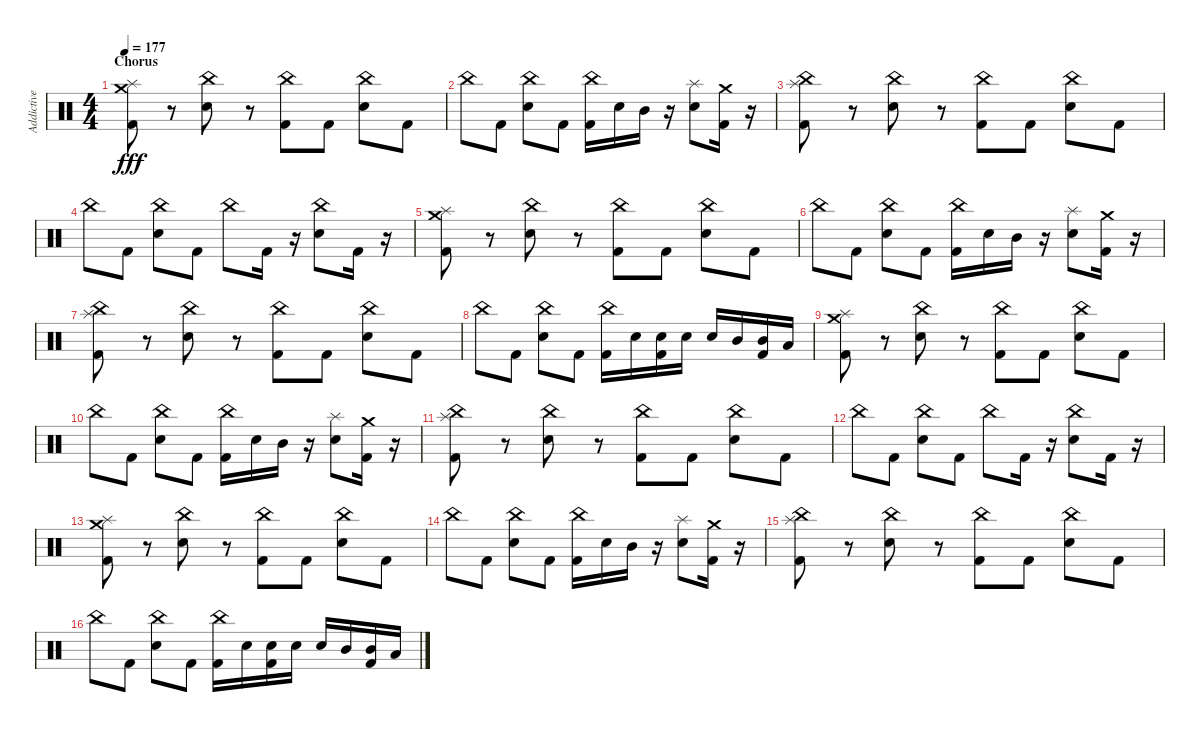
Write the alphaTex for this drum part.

\track ("Addictive" "Addictive") {instrument percussion}
\staff {score}
\articulation defaults
\ts (4 4)
\section ("" "Chorus")
\tempo 177
\clef neutral
\ks c
("Kick (hit) 2" "Splash (hit)" "Crash medium (hit)").8{dy fff} r.8 ("Snare (hit) 2" "China (hit)").8 r.8 ("Kick (hit) 2" "China (hit)").8 "Kick (hit) 2".8 ("Snare (hit) 2" "China (hit)").8 "Kick (hit) 2".8 |
"China (hit)".8 "Kick (hit) 2".8 ("Snare (hit) 2" "China (hit)").8 "Kick (hit) 2".8 ("Kick (hit) 2" "China (hit)").16 "Snare (hit) 2".16 "Mid Tom (hit)".16 r.16 ("Snare (hit) 2" "Splash (hit)").8 ("Kick (hit) 2" "Crash medium (hit)").16 r.16 |
("Kick (hit) 2" "Splash (hit)" "China (hit)").8 r.8 ("Snare (hit) 2" "China (hit)").8 r.8 ("Kick (hit) 2" "China (hit)").8 "Kick (hit) 2".8 ("Snare (hit) 2" "China (hit)").8 "Kick (hit) 2".8 |
"China (hit)".8 "Kick (hit) 2".8 ("Snare (hit) 2" "China (hit)").8 "Kick (hit) 2".8 "China (hit)".8 "Kick (hit) 2".16 r.16 ("Snare (hit) 2" "China (hit)").8 "Kick (hit) 2".16 r.16 |
("Kick (hit) 2" "Splash (hit)" "Crash medium (hit)").8 r.8 ("Snare (hit) 2" "China (hit)").8 r.8 ("Kick (hit) 2" "China (hit)").8 "Kick (hit) 2".8 ("Snare (hit) 2" "China (hit)").8 "Kick (hit) 2".8 |
"China (hit)".8 "Kick (hit) 2".8 ("Snare (hit) 2" "China (hit)").8 "Kick (hit) 2".8 ("Kick (hit) 2" "China (hit)").16 "Snare (hit) 2".16 "Mid Tom (hit)".16 r.16 ("Snare (hit) 2" "Splash (hit)").8 ("Kick (hit) 2" "Crash medium (hit)").16 r.16 |
("Kick (hit) 2" "Splash (hit)" "China (hit)").8 r.8 ("Snare (hit) 2" "China (hit)").8 r.8 ("Kick (hit) 2" "China (hit)").8 "Kick (hit) 2".8 ("Snare (hit) 2" "China (hit)").8 "Kick (hit) 2".8 |
"China (hit)".8 "Kick (hit) 2".8 ("Snare (hit) 2" "China (hit)").8 "Kick (hit) 2".8 ("Kick (hit) 2" "China (hit)").16 "Snare (hit) 2".16 ("Kick (hit) 2" "Snare (hit) 2").16 "Snare (hit) 2".16 "Snare (hit) 2".16 "Mid Tom (hit)".16 ("Kick (hit) 2" "Mid Tom (hit)").16 "Low Tom (hit)".16 |
("Kick (hit) 2" "Splash (hit)" "Crash medium (hit)").8 r.8 ("Snare (hit) 2" "China (hit)").8 r.8 ("Kick (hit) 2" "China (hit)").8 "Kick (hit) 2".8 ("Snare (hit) 2" "China (hit)").8 "Kick (hit) 2".8 |
"China (hit)".8 "Kick (hit) 2".8 ("Snare (hit) 2" "China (hit)").8 "Kick (hit) 2".8 ("Kick (hit) 2" "China (hit)").16 "Snare (hit) 2".16 "Mid Tom (hit)".16 r.16 ("Snare (hit) 2" "Splash (hit)").8 ("Kick (hit) 2" "Crash medium (hit)").16 r.16 |
("Kick (hit) 2" "Splash (hit)" "China (hit)").8 r.8 ("Snare (hit) 2" "China (hit)").8 r.8 ("Kick (hit) 2" "China (hit)").8 "Kick (hit) 2".8 ("Snare (hit) 2" "China (hit)").8 "Kick (hit) 2".8 |
"China (hit)".8 "Kick (hit) 2".8 ("Snare (hit) 2" "China (hit)").8 "Kick (hit) 2".8 "China (hit)".8 "Kick (hit) 2".16 r.16 ("Snare (hit) 2" "China (hit)").8 "Kick (hit) 2".16 r.16 |
("Kick (hit) 2" "Splash (hit)" "Crash medium (hit)").8 r.8 ("Snare (hit) 2" "China (hit)").8 r.8 ("Kick (hit) 2" "China (hit)").8 "Kick (hit) 2".8 ("Snare (hit) 2" "China (hit)").8 "Kick (hit) 2".8 |
"China (hit)".8 "Kick (hit) 2".8 ("Snare (hit) 2" "China (hit)").8 "Kick (hit) 2".8 ("Kick (hit) 2" "China (hit)").16 "Snare (hit) 2".16 "Mid Tom (hit)".16 r.16 ("Snare (hit) 2" "Splash (hit)").8 ("Kick (hit) 2" "Crash medium (hit)").16 r.16 |
("Kick (hit) 2" "Splash (hit)" "China (hit)").8 r.8 ("Snare (hit) 2" "China (hit)").8 r.8 ("Kick (hit) 2" "China (hit)").8 "Kick (hit) 2".8 ("Snare (hit) 2" "China (hit)").8 "Kick (hit) 2".8 |
"China (hit)".8 "Kick (hit) 2".8 ("Snare (hit) 2" "China (hit)").8 "Kick (hit) 2".8 ("Kick (hit) 2" "China (hit)").16 "Snare (hit) 2".16 ("Kick (hit) 2" "Snare (hit) 2").16 "Snare (hit) 2".16 "Snare (hit) 2".16 "Mid Tom (hit)".16 ("Kick (hit) 2" "Mid Tom (hit)").16 "Low Tom (hit)".16
